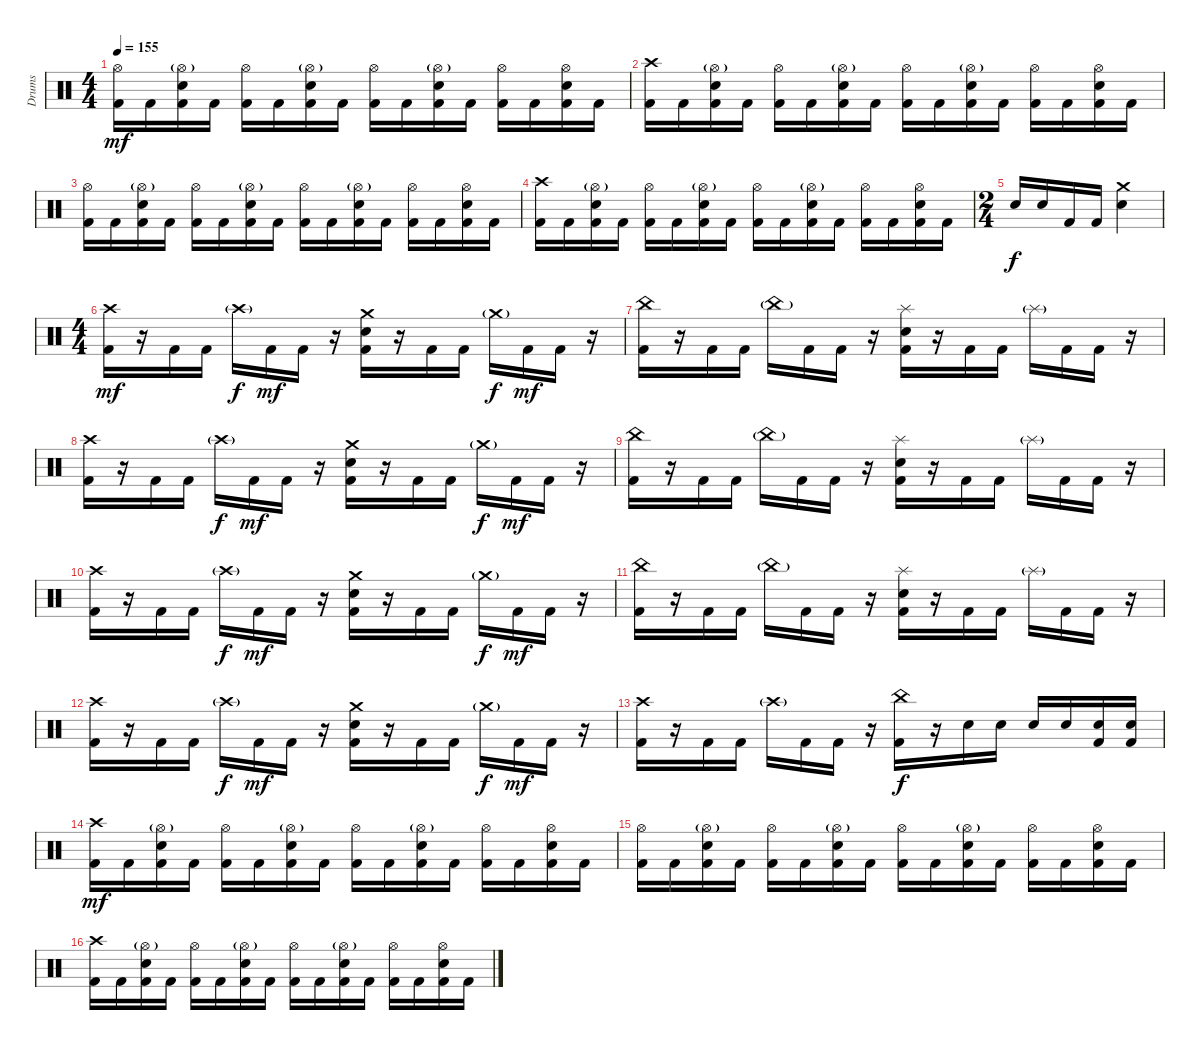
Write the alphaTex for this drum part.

\track ("Drums" "Drums") {instrument percussion}
\staff {score}
\articulation defaults
\ts (4 4)
\tempo 155
\clef neutral
\ks c
("Kick (hit) 2" "Hi-Hat (open)").16{dy mf} "Kick (hit) 2".16 ("Kick (hit) 2" "Snare (hit) 2" "Hi-Hat (open)"{g}).16 "Kick (hit) 2".16 ("Kick (hit) 2" "Hi-Hat (open)").16 "Kick (hit) 2".16 ("Kick (hit) 2" "Snare (hit) 2" "Hi-Hat (open)"{g}).16 "Kick (hit) 2".16 ("Kick (hit) 2" "Hi-Hat (open)").16 "Kick (hit) 2".16 ("Kick (hit) 2" "Snare (hit) 2" "Hi-Hat (open)"{g}).16 "Kick (hit) 2".16 ("Kick (hit) 2" "Hi-Hat (open)").16 "Kick (hit) 2".16 ("Kick (hit) 2" "Snare (hit) 2" "Hi-Hat (open)").16 "Kick (hit) 2".16 |
("Kick (hit) 2" "Crash high (hit)").16 "Kick (hit) 2".16 ("Kick (hit) 2" "Snare (hit) 2" "Hi-Hat (open)"{g}).16 "Kick (hit) 2".16 ("Kick (hit) 2" "Hi-Hat (open)").16 "Kick (hit) 2".16 ("Kick (hit) 2" "Snare (hit) 2" "Hi-Hat (open)"{g}).16 "Kick (hit) 2".16 ("Kick (hit) 2" "Hi-Hat (open)").16 "Kick (hit) 2".16 ("Kick (hit) 2" "Snare (hit) 2" "Hi-Hat (open)"{g}).16 "Kick (hit) 2".16 ("Kick (hit) 2" "Hi-Hat (open)").16 "Kick (hit) 2".16 ("Kick (hit) 2" "Snare (hit) 2" "Hi-Hat (open)").16 "Kick (hit) 2".16 |
("Kick (hit) 2" "Hi-Hat (open)").16 "Kick (hit) 2".16 ("Kick (hit) 2" "Snare (hit) 2" "Hi-Hat (open)"{g}).16 "Kick (hit) 2".16 ("Kick (hit) 2" "Hi-Hat (open)").16 "Kick (hit) 2".16 ("Kick (hit) 2" "Snare (hit) 2" "Hi-Hat (open)"{g}).16 "Kick (hit) 2".16 ("Kick (hit) 2" "Hi-Hat (open)").16 "Kick (hit) 2".16 ("Kick (hit) 2" "Snare (hit) 2" "Hi-Hat (open)"{g}).16 "Kick (hit) 2".16 ("Kick (hit) 2" "Hi-Hat (open)").16 "Kick (hit) 2".16 ("Kick (hit) 2" "Snare (hit) 2" "Hi-Hat (open)").16 "Kick (hit) 2".16 |
("Kick (hit) 2" "Crash high (hit)").16 "Kick (hit) 2".16 ("Kick (hit) 2" "Snare (hit) 2" "Hi-Hat (open)"{g}).16 "Kick (hit) 2".16 ("Kick (hit) 2" "Hi-Hat (open)").16 "Kick (hit) 2".16 ("Kick (hit) 2" "Snare (hit) 2" "Hi-Hat (open)"{g}).16 "Kick (hit) 2".16 ("Kick (hit) 2" "Hi-Hat (open)").16 "Kick (hit) 2".16 ("Kick (hit) 2" "Snare (hit) 2" "Hi-Hat (open)"{g}).16 "Kick (hit) 2".16 ("Kick (hit) 2" "Hi-Hat (open)").16 "Kick (hit) 2".16 ("Kick (hit) 2" "Snare (hit) 2" "Hi-Hat (open)").16 "Kick (hit) 2".16 |
\ts (2 4)
"Snare (hit) 2".16{dy f} "Snare (hit) 2".16 "Kick (hit) 2".16 "Kick (hit) 2".16 ("Snare (hit) 2" "Crash medium (hit)").4 |
\ts (4 4)
("Kick (hit) 2" "Crash high (hit)").16{dy mf} r.16 "Kick (hit) 2".16 "Kick (hit) 2".16 "Crash high (hit)"{g}.16{dy f} "Kick (hit) 2".16{dy mf} "Kick (hit) 2".16 r.16 ("Kick (hit) 2" "Crash medium (hit)" "Snare (hit) 2").16 r.16 "Kick (hit) 2".16 "Kick (hit) 2".16 "Crash medium (hit)"{g}.16{dy f} "Kick (hit) 2".16{dy mf} "Kick (hit) 2".16 r.16 |
("Kick (hit) 2" "China (hit)").16 r.16 "Kick (hit) 2".16 "Kick (hit) 2".16 "China (hit)"{g}.16 "Kick (hit) 2".16 "Kick (hit) 2".16 r.16 ("Kick (hit) 2" "Splash (hit)" "Snare (hit) 2").16 r.16 "Kick (hit) 2".16 "Kick (hit) 2".16 "Splash (hit)"{g}.16 "Kick (hit) 2".16 "Kick (hit) 2".16 r.16 |
("Kick (hit) 2" "Crash high (hit)").16 r.16 "Kick (hit) 2".16 "Kick (hit) 2".16 "Crash high (hit)"{g}.16{dy f} "Kick (hit) 2".16{dy mf} "Kick (hit) 2".16 r.16 ("Kick (hit) 2" "Crash medium (hit)" "Snare (hit) 2").16 r.16 "Kick (hit) 2".16 "Kick (hit) 2".16 "Crash medium (hit)"{g}.16{dy f} "Kick (hit) 2".16{dy mf} "Kick (hit) 2".16 r.16 |
("Kick (hit) 2" "China (hit)").16 r.16 "Kick (hit) 2".16 "Kick (hit) 2".16 "China (hit)"{g}.16 "Kick (hit) 2".16 "Kick (hit) 2".16 r.16 ("Kick (hit) 2" "Splash (hit)" "Snare (hit) 2").16 r.16 "Kick (hit) 2".16 "Kick (hit) 2".16 "Splash (hit)"{g}.16 "Kick (hit) 2".16 "Kick (hit) 2".16 r.16 |
("Kick (hit) 2" "Crash high (hit)").16 r.16 "Kick (hit) 2".16 "Kick (hit) 2".16 "Crash high (hit)"{g}.16{dy f} "Kick (hit) 2".16{dy mf} "Kick (hit) 2".16 r.16 ("Kick (hit) 2" "Crash medium (hit)" "Snare (hit) 2").16 r.16 "Kick (hit) 2".16 "Kick (hit) 2".16 "Crash medium (hit)"{g}.16{dy f} "Kick (hit) 2".16{dy mf} "Kick (hit) 2".16 r.16 |
("Kick (hit) 2" "China (hit)").16 r.16 "Kick (hit) 2".16 "Kick (hit) 2".16 "China (hit)"{g}.16 "Kick (hit) 2".16 "Kick (hit) 2".16 r.16 ("Kick (hit) 2" "Splash (hit)" "Snare (hit) 2").16 r.16 "Kick (hit) 2".16 "Kick (hit) 2".16 "Splash (hit)"{g}.16 "Kick (hit) 2".16 "Kick (hit) 2".16 r.16 |
("Kick (hit) 2" "Crash high (hit)").16 r.16 "Kick (hit) 2".16 "Kick (hit) 2".16 "Crash high (hit)"{g}.16{dy f} "Kick (hit) 2".16{dy mf} "Kick (hit) 2".16 r.16 ("Kick (hit) 2" "Crash medium (hit)" "Snare (hit) 2").16 r.16 "Kick (hit) 2".16 "Kick (hit) 2".16 "Crash medium (hit)"{g}.16{dy f} "Kick (hit) 2".16{dy mf} "Kick (hit) 2".16 r.16 |
("Kick (hit) 2" "Crash high (hit)").16 r.16 "Kick (hit) 2".16 "Kick (hit) 2".16 "Crash high (hit)"{g}.16 "Kick (hit) 2".16 "Kick (hit) 2".16 r.16 ("Kick (hit) 2" "China (hit)").16{dy f} r.16 "Snare (hit) 2".16 "Snare (hit) 2".16 "Snare (hit) 2".16 "Snare (hit) 2".16 ("Kick (hit) 2" "Snare (hit) 2").16 ("Kick (hit) 2" "Snare (hit) 2").16 |
("Kick (hit) 2" "Crash high (hit)").16{dy mf} "Kick (hit) 2".16 ("Kick (hit) 2" "Snare (hit) 2" "Hi-Hat (open)"{g}).16 "Kick (hit) 2".16 ("Kick (hit) 2" "Hi-Hat (open)").16 "Kick (hit) 2".16 ("Kick (hit) 2" "Snare (hit) 2" "Hi-Hat (open)"{g}).16 "Kick (hit) 2".16 ("Kick (hit) 2" "Hi-Hat (open)").16 "Kick (hit) 2".16 ("Kick (hit) 2" "Snare (hit) 2" "Hi-Hat (open)"{g}).16 "Kick (hit) 2".16 ("Kick (hit) 2" "Hi-Hat (open)").16 "Kick (hit) 2".16 ("Kick (hit) 2" "Snare (hit) 2" "Hi-Hat (open)").16 "Kick (hit) 2".16 |
("Kick (hit) 2" "Hi-Hat (open)").16 "Kick (hit) 2".16 ("Kick (hit) 2" "Snare (hit) 2" "Hi-Hat (open)"{g}).16 "Kick (hit) 2".16 ("Kick (hit) 2" "Hi-Hat (open)").16 "Kick (hit) 2".16 ("Kick (hit) 2" "Snare (hit) 2" "Hi-Hat (open)"{g}).16 "Kick (hit) 2".16 ("Kick (hit) 2" "Hi-Hat (open)").16 "Kick (hit) 2".16 ("Kick (hit) 2" "Snare (hit) 2" "Hi-Hat (open)"{g}).16 "Kick (hit) 2".16 ("Kick (hit) 2" "Hi-Hat (open)").16 "Kick (hit) 2".16 ("Kick (hit) 2" "Snare (hit) 2" "Hi-Hat (open)").16 "Kick (hit) 2".16 |
("Kick (hit) 2" "Crash high (hit)").16 "Kick (hit) 2".16 ("Kick (hit) 2" "Snare (hit) 2" "Hi-Hat (open)"{g}).16 "Kick (hit) 2".16 ("Kick (hit) 2" "Hi-Hat (open)").16 "Kick (hit) 2".16 ("Kick (hit) 2" "Snare (hit) 2" "Hi-Hat (open)"{g}).16 "Kick (hit) 2".16 ("Kick (hit) 2" "Hi-Hat (open)").16 "Kick (hit) 2".16 ("Kick (hit) 2" "Snare (hit) 2" "Hi-Hat (open)"{g}).16 "Kick (hit) 2".16 ("Kick (hit) 2" "Hi-Hat (open)").16 "Kick (hit) 2".16 ("Kick (hit) 2" "Snare (hit) 2" "Hi-Hat (open)").16 "Kick (hit) 2".16
